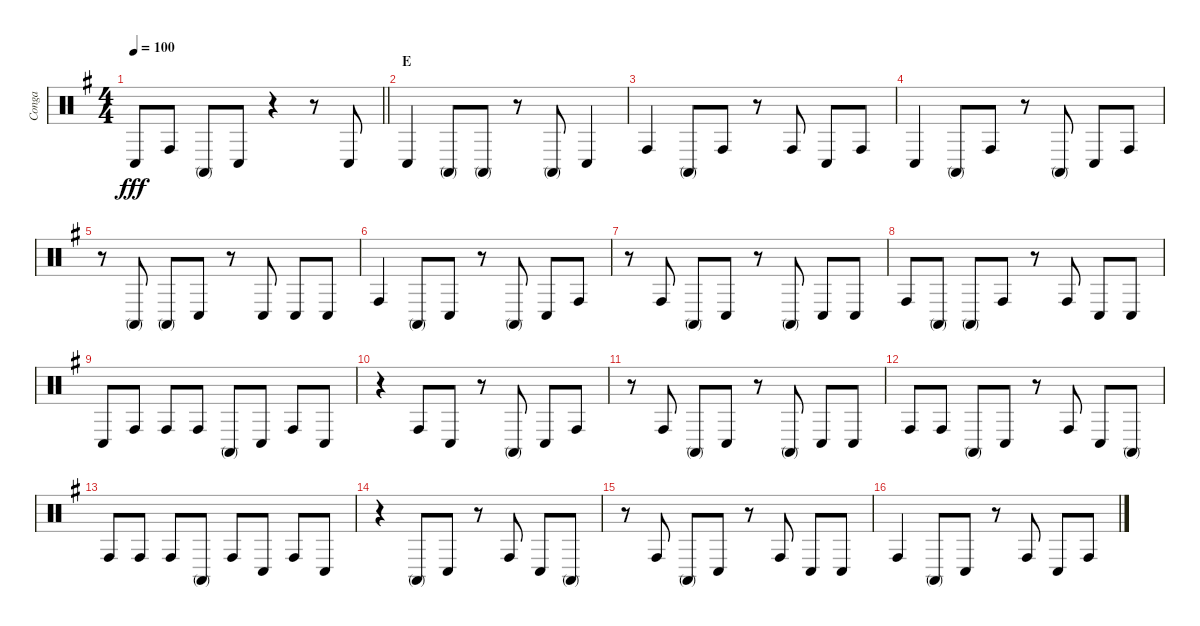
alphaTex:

\track ("Conga" "Conga") {instrument percussion}
\staff {score}
\articulation defaults
\ts (4 4)
\tempo 100
\clef neutral
\barLineRight lightlight
\ks g "Conga low (hit)".8{dy fff} "Conga high (hit)".8 "Conga high (mute)".8 "Conga low (hit)".8
r.4 r.8 "Conga low (hit)".8 |
\section ("" "E")
"Conga low (hit)".4 "Conga high (mute)".8 "Conga high (mute)".8 r.8 "Conga high (mute)".8 "Conga low (hit)".4 |
"Conga high (hit)".4 "Conga high (mute)".8 "Conga high (hit)".8 r.8 "Conga high (hit)".8 "Conga low (hit)".8 "Conga high (hit)".8 |
"Conga low (hit)".4 "Conga high (mute)".8 "Conga high (hit)".8 r.8 "Conga high (mute)".8 "Conga low (hit)".8 "Conga high (hit)".8 |
r.8 "Conga high (mute)".8 "Conga high (mute)".8 "Conga low (hit)".8 r.8 "Conga low (hit)".8 "Conga low (hit)".8 "Conga low (hit)".8 |
"Conga high (hit)".4 "Conga high (mute)".8 "Conga low (hit)".8 r.8 "Conga high (mute)".8 "Conga low (hit)".8 "Conga high (hit)".8 |
r.8 "Conga high (hit)".8 "Conga high (mute)".8 "Conga low (hit)".8 r.8 "Conga high (mute)".8 "Conga low (hit)".8 "Conga low (hit)".8 |
"Conga high (hit)".8 "Conga high (mute)".8 "Conga high (mute)".8 "Conga high (hit)".8 r.8 "Conga high (hit)".8 "Conga low (hit)".8 "Conga low (hit)".8 |
"Conga low (hit)".8 "Conga high (hit)".8 "Conga high (hit)".8 "Conga high (hit)".8 "Conga high (mute)".8 "Conga low (hit)".8 "Conga high (hit)".8 "Conga low (hit)".8 |
r.4 "Conga high (hit)".8 "Conga low (hit)".8 r.8 "Conga high (mute)".8 "Conga low (hit)".8 "Conga high (hit)".8 |
r.8 "Conga high (hit)".8 "Conga high (mute)".8 "Conga low (hit)".8 r.8 "Conga high (mute)".8 "Conga low (hit)".8 "Conga low (hit)".8 |
"Conga high (hit)".8 "Conga high (hit)".8 "Conga high (mute)".8 "Conga low (hit)".8 r.8 "Conga high (hit)".8 "Conga low (hit)".8 "Conga high (mute)".8 |
"Conga high (hit)".8 "Conga high (hit)".8 "Conga high (hit)".8 "Conga high (mute)".8 "Conga high (hit)".8 "Conga low (hit)".8 "Conga high (hit)".8 "Conga low (hit)".8 |
r.4 "Conga high (mute)".8 "Conga low (hit)".8 r.8 "Conga high (hit)".8 "Conga low (hit)".8 "Conga high (mute)".8 |
r.8 "Conga high (hit)".8 "Conga high (mute)".8 "Conga low (hit)".8 r.8 "Conga high (hit)".8 "Conga low (hit)".8 "Conga low (hit)".8 |
"Conga high (hit)".4 "Conga high (mute)".8 "Conga low (hit)".8 r.8 "Conga high (hit)".8 "Conga low (hit)".8 "Conga high (hit)".8
